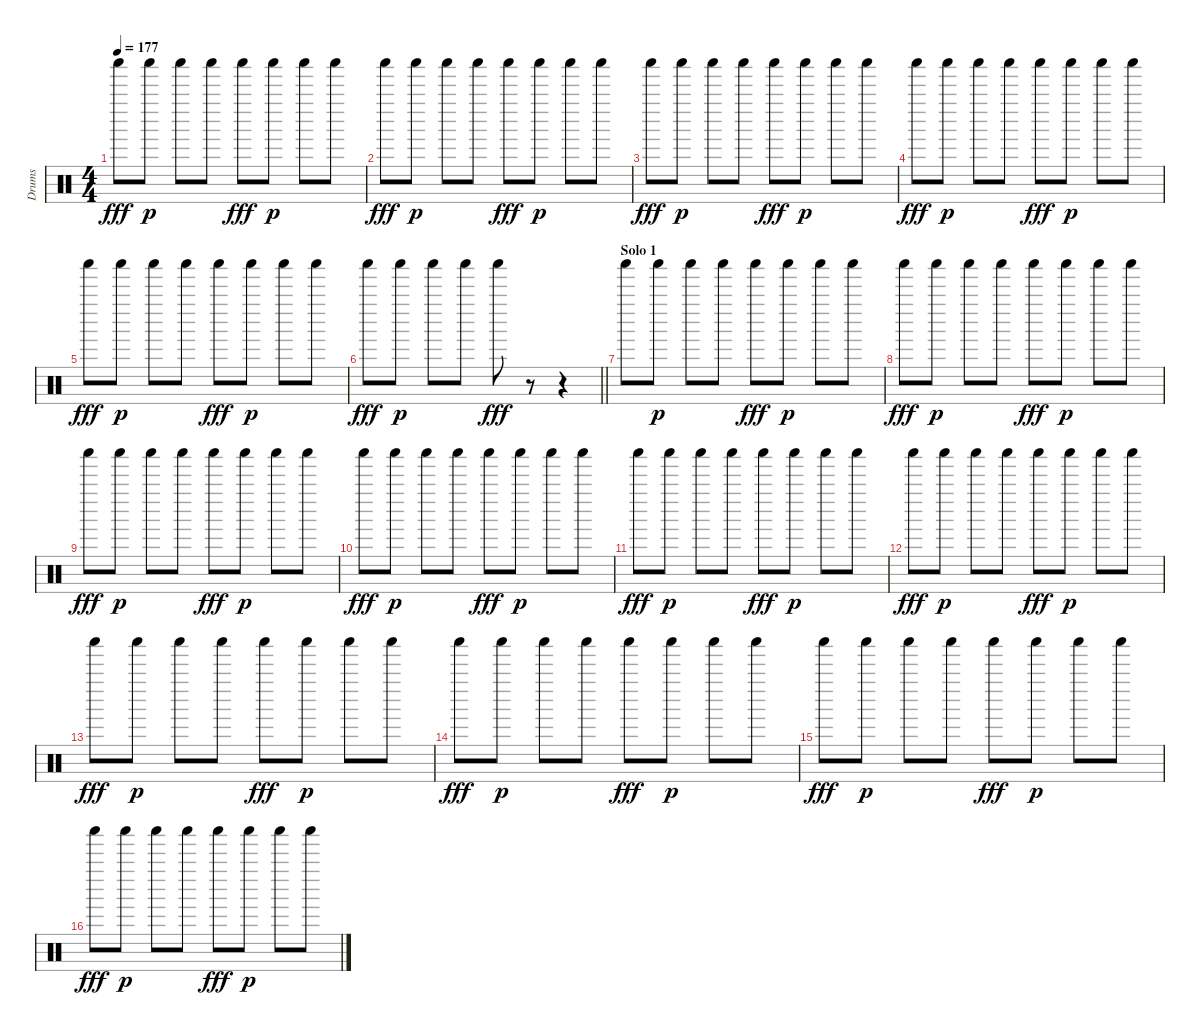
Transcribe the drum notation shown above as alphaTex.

\track ("Drums" "Drums") {instrument percussion}
\staff {score}
\articulation defaults
\ts (4 4)
\tempo 177
\clef neutral
\ks c "Shaker (hit)".8{dy fff} "Shaker (hit)".8{dy p} "Shaker (hit)".8 "Shaker (hit)".8 "Shaker (hit)".8{dy fff} "Shaker (hit)".8{dy p} "Shaker (hit)".8 "Shaker (hit)".8
|
"Shaker (hit)".8{dy fff} "Shaker (hit)".8{dy p} "Shaker (hit)".8 "Shaker (hit)".8 "Shaker (hit)".8{dy fff} "Shaker (hit)".8{dy p} "Shaker (hit)".8 "Shaker (hit)".8 |
"Shaker (hit)".8{dy fff} "Shaker (hit)".8{dy p} "Shaker (hit)".8 "Shaker (hit)".8 "Shaker (hit)".8{dy fff} "Shaker (hit)".8{dy p} "Shaker (hit)".8 "Shaker (hit)".8 |
"Shaker (hit)".8{dy fff} "Shaker (hit)".8{dy p} "Shaker (hit)".8 "Shaker (hit)".8 "Shaker (hit)".8{dy fff} "Shaker (hit)".8{dy p} "Shaker (hit)".8 "Shaker (hit)".8 |
"Shaker (hit)".8{dy fff} "Shaker (hit)".8{dy p} "Shaker (hit)".8 "Shaker (hit)".8 "Shaker (hit)".8{dy fff} "Shaker (hit)".8{dy p} "Shaker (hit)".8 "Shaker (hit)".8 |
\barLineRight lightlight "Shaker (hit)".8{dy fff} "Shaker (hit)".8{dy p} "Shaker (hit)".8 "Shaker (hit)".8 "Shaker (hit)".8{dy fff}
r.8 r.4 |
\section ("" "Solo 1")
"Shaker (hit)".8 "Shaker (hit)".8{dy p} "Shaker (hit)".8 "Shaker (hit)".8 "Shaker (hit)".8{dy fff} "Shaker (hit)".8{dy p} "Shaker (hit)".8 "Shaker (hit)".8 |
"Shaker (hit)".8{dy fff} "Shaker (hit)".8{dy p} "Shaker (hit)".8 "Shaker (hit)".8 "Shaker (hit)".8{dy fff} "Shaker (hit)".8{dy p} "Shaker (hit)".8 "Shaker (hit)".8 |
"Shaker (hit)".8{dy fff} "Shaker (hit)".8{dy p} "Shaker (hit)".8 "Shaker (hit)".8 "Shaker (hit)".8{dy fff} "Shaker (hit)".8{dy p} "Shaker (hit)".8 "Shaker (hit)".8 |
"Shaker (hit)".8{dy fff} "Shaker (hit)".8{dy p} "Shaker (hit)".8 "Shaker (hit)".8 "Shaker (hit)".8{dy fff} "Shaker (hit)".8{dy p} "Shaker (hit)".8 "Shaker (hit)".8 |
"Shaker (hit)".8{dy fff} "Shaker (hit)".8{dy p} "Shaker (hit)".8 "Shaker (hit)".8 "Shaker (hit)".8{dy fff} "Shaker (hit)".8{dy p} "Shaker (hit)".8 "Shaker (hit)".8 |
"Shaker (hit)".8{dy fff} "Shaker (hit)".8{dy p} "Shaker (hit)".8 "Shaker (hit)".8 "Shaker (hit)".8{dy fff} "Shaker (hit)".8{dy p} "Shaker (hit)".8 "Shaker (hit)".8 |
"Shaker (hit)".8{dy fff} "Shaker (hit)".8{dy p} "Shaker (hit)".8 "Shaker (hit)".8 "Shaker (hit)".8{dy fff} "Shaker (hit)".8{dy p} "Shaker (hit)".8 "Shaker (hit)".8 |
"Shaker (hit)".8{dy fff} "Shaker (hit)".8{dy p} "Shaker (hit)".8 "Shaker (hit)".8 "Shaker (hit)".8{dy fff} "Shaker (hit)".8{dy p} "Shaker (hit)".8 "Shaker (hit)".8 |
"Shaker (hit)".8{dy fff} "Shaker (hit)".8{dy p} "Shaker (hit)".8 "Shaker (hit)".8 "Shaker (hit)".8{dy fff} "Shaker (hit)".8{dy p} "Shaker (hit)".8 "Shaker (hit)".8 |
"Shaker (hit)".8{dy fff} "Shaker (hit)".8{dy p} "Shaker (hit)".8 "Shaker (hit)".8 "Shaker (hit)".8{dy fff} "Shaker (hit)".8{dy p} "Shaker (hit)".8 "Shaker (hit)".8
